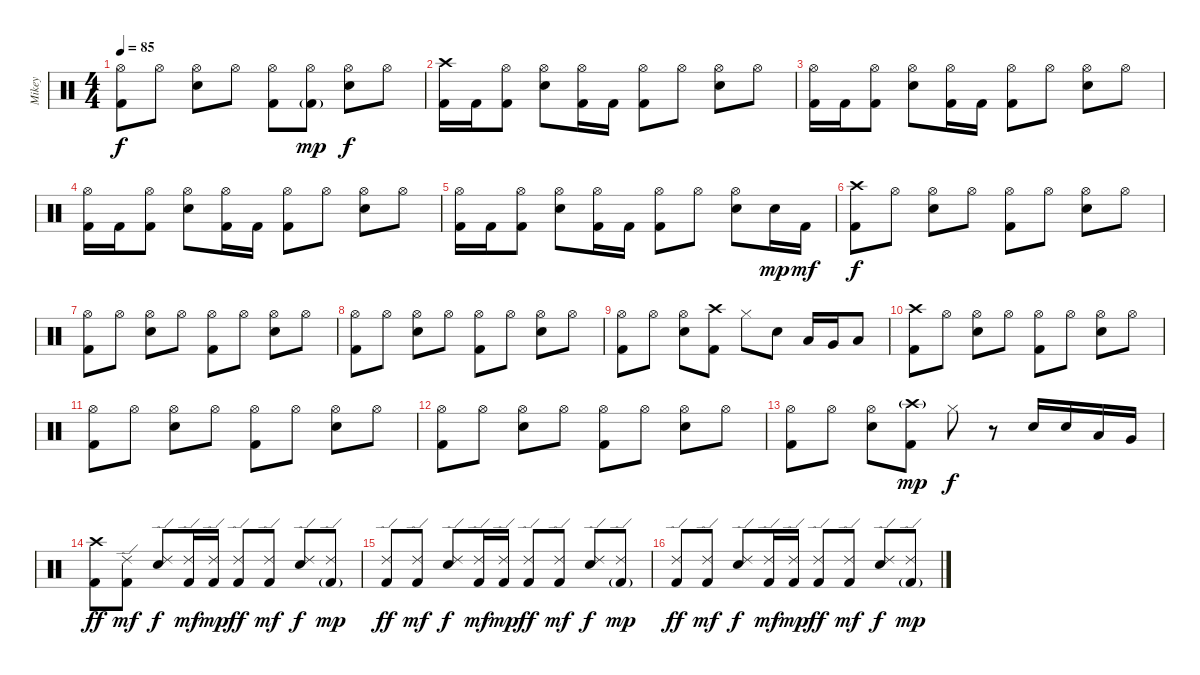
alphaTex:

\track ("Mikey" "Mikey") {instrument percussion}
\staff {score}
\articulation defaults
\ts (4 4)
\tempo 85
\clef neutral
\ks c
("Hi-Hat (open)" "Kick (hit) 2").8{dy f} "Hi-Hat (open)".8 ("Hi-Hat (open)" "Snare (hit) 2").8 "Hi-Hat (open)".8 ("Hi-Hat (open)" "Kick (hit) 2").8 ("Hi-Hat (open)" "Kick (hit) 2"{g}).8{dy mp} ("Hi-Hat (open)" "Snare (hit) 2").8{dy f} "Hi-Hat (open)".8 |
("Crash high (hit)" "Kick (hit) 2").16 "Kick (hit) 2".16 ("Hi-Hat (open)" "Kick (hit) 2").8 ("Hi-Hat (open)" "Snare (hit) 2").8 ("Hi-Hat (open)" "Kick (hit) 2").16 "Kick (hit) 2".16 ("Hi-Hat (open)" "Kick (hit) 2").8 "Hi-Hat (open)".8 ("Hi-Hat (open)" "Snare (hit) 2").8 "Hi-Hat (open)".8 |
("Hi-Hat (open)" "Kick (hit) 2").16 "Kick (hit) 2".16 ("Hi-Hat (open)" "Kick (hit) 2").8 ("Hi-Hat (open)" "Snare (hit) 2").8 ("Hi-Hat (open)" "Kick (hit) 2").16 "Kick (hit) 2".16 ("Hi-Hat (open)" "Kick (hit) 2").8 "Hi-Hat (open)".8 ("Hi-Hat (open)" "Snare (hit) 2").8 "Hi-Hat (open)".8 |
("Hi-Hat (open)" "Kick (hit) 2").16 "Kick (hit) 2".16 ("Hi-Hat (open)" "Kick (hit) 2").8 ("Hi-Hat (open)" "Snare (hit) 2").8 ("Hi-Hat (open)" "Kick (hit) 2").16 "Kick (hit) 2".16 ("Hi-Hat (open)" "Kick (hit) 2").8 "Hi-Hat (open)".8 ("Hi-Hat (open)" "Snare (hit) 2").8 "Hi-Hat (open)".8 |
("Hi-Hat (open)" "Kick (hit) 2").16 "Kick (hit) 2".16 ("Hi-Hat (open)" "Kick (hit) 2").8 ("Hi-Hat (open)" "Snare (hit) 2").8 ("Hi-Hat (open)" "Kick (hit) 2").16 "Kick (hit) 2".16 ("Hi-Hat (open)" "Kick (hit) 2").8 "Hi-Hat (open)".8 ("Hi-Hat (open)" "Snare (hit) 2").8 "Snare (hit) 2".16{dy mp} "Kick (hit) 2".16{dy mf} |
("Crash high (hit)" "Kick (hit) 2").8{dy f} "Hi-Hat (open)".8 ("Hi-Hat (open)" "Snare (hit) 2").8 "Hi-Hat (open)".8 ("Hi-Hat (open)" "Kick (hit) 2").8 "Hi-Hat (open)".8 ("Hi-Hat (open)" "Snare (hit) 2").8 "Hi-Hat (open)".8 |
("Hi-Hat (open)" "Kick (hit) 2").8 "Hi-Hat (open)".8 ("Hi-Hat (open)" "Snare (hit) 2").8 "Hi-Hat (open)".8 ("Hi-Hat (open)" "Kick (hit) 2").8 "Hi-Hat (open)".8 ("Hi-Hat (open)" "Snare (hit) 2").8 "Hi-Hat (open)".8 |
("Hi-Hat (open)" "Kick (hit) 2").8 "Hi-Hat (open)".8 ("Hi-Hat (open)" "Snare (hit) 2").8 "Hi-Hat (open)".8 ("Hi-Hat (open)" "Kick (hit) 2").8 "Hi-Hat (open)".8 ("Hi-Hat (open)" "Snare (hit) 2").8 "Hi-Hat (open)".8 |
("Hi-Hat (open)" "Kick (hit) 2").8 "Hi-Hat (open)".8 ("Hi-Hat (open)" "Snare (hit) 2").8 ("Crash high (hit)" "Kick (hit) 2").8 "Hi-Hat (closed)".8 "Snare (hit) 2".8 "Low Tom (hit)".16 "Very Low Tom (hit)".16 "Low Floor Tom (hit)".8 |
("Crash high (hit)" "Kick (hit) 2").8 "Hi-Hat (open)".8 ("Hi-Hat (open)" "Snare (hit) 2").8 "Hi-Hat (open)".8 ("Hi-Hat (open)" "Kick (hit) 2").8 "Hi-Hat (open)".8 ("Hi-Hat (open)" "Snare (hit) 2").8 "Hi-Hat (open)".8 |
("Hi-Hat (open)" "Kick (hit) 2").8 "Hi-Hat (open)".8 ("Hi-Hat (open)" "Snare (hit) 2").8 "Hi-Hat (open)".8 ("Hi-Hat (open)" "Kick (hit) 2").8 "Hi-Hat (open)".8 ("Hi-Hat (open)" "Snare (hit) 2").8 "Hi-Hat (open)".8 |
("Hi-Hat (open)" "Kick (hit) 2").8 "Hi-Hat (open)".8 ("Hi-Hat (open)" "Snare (hit) 2").8 "Hi-Hat (open)".8 ("Hi-Hat (open)" "Kick (hit) 2").8 "Hi-Hat (open)".8 ("Hi-Hat (open)" "Snare (hit) 2").8 "Hi-Hat (open)".8 |
("Hi-Hat (open)" "Kick (hit) 2").8 "Hi-Hat (open)".8 ("Hi-Hat (open)" "Snare (hit) 2").8 ("Crash high (hit)"{g} "Kick (hit) 2").8{dy mp} "Hi-Hat (closed)".8{dy f} r.8 "Snare (hit) 2".16 "Snare (hit) 2".16 "Low Tom (hit)".16 "Very Low Tom (hit)".16 |
("Crash high (hit)" "Kick (hit) 2").8{dy ff} ("Ride (edge) 2" "Kick (hit) 2").8{dy mf} ("Ride (edge) 2" "Snare (hit) 2").8{dy f} ("Ride (edge) 2" "Kick (hit) 2").16{dy mf} ("Ride (edge) 2" "Kick (hit) 2").16{dy mp} ("Ride (edge) 2" "Kick (hit) 2").8{dy ff} ("Ride (edge) 2" "Kick (hit) 2").8{dy mf} ("Ride (edge) 2" "Snare (hit) 2").8{dy f} ("Ride (edge) 2" "Kick (hit) 2"{g}).8{dy mp} |
("Ride (edge) 2" "Kick (hit) 2").8{dy ff} ("Ride (edge) 2" "Kick (hit) 2").8{dy mf} ("Ride (edge) 2" "Snare (hit) 2").8{dy f} ("Ride (edge) 2" "Kick (hit) 2").16{dy mf} ("Ride (edge) 2" "Kick (hit) 2").16{dy mp} ("Ride (edge) 2" "Kick (hit) 2").8{dy ff} ("Ride (edge) 2" "Kick (hit) 2").8{dy mf} ("Ride (edge) 2" "Snare (hit) 2").8{dy f} ("Ride (edge) 2" "Kick (hit) 2"{g}).8{dy mp} |
("Ride (edge) 2" "Kick (hit) 2").8{dy ff} ("Ride (edge) 2" "Kick (hit) 2").8{dy mf} ("Ride (edge) 2" "Snare (hit) 2").8{dy f} ("Ride (edge) 2" "Kick (hit) 2").16{dy mf} ("Ride (edge) 2" "Kick (hit) 2").16{dy mp} ("Ride (edge) 2" "Kick (hit) 2").8{dy ff} ("Ride (edge) 2" "Kick (hit) 2").8{dy mf} ("Ride (edge) 2" "Snare (hit) 2").8{dy f} ("Ride (edge) 2" "Kick (hit) 2"{g}).8{dy mp}
